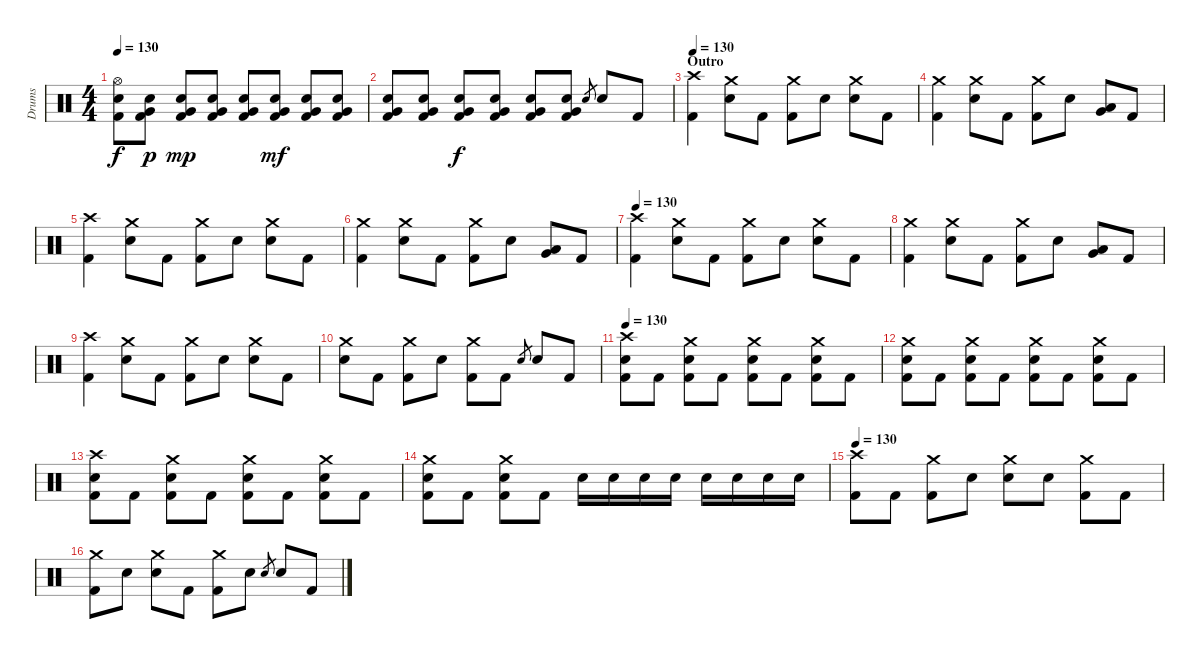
\track ("Drums" "Drums") {instrument percussion}
\staff {score}
\articulation defaults
\ts (4 4)
\tempo 130
\clef neutral
\ks c
("Hi-Hat (open)" "Snare (hit) 2" "Kick (hit) 2").8{dy f} ("Snare (hit) 2" "Very Low Tom (hit)" "Kick (hit) 2").8{dy p} ("Snare (hit) 2" "Very Low Tom (hit)" "Kick (hit) 2").8{dy mp} ("Snare (hit) 2" "Very Low Tom (hit)" "Kick (hit) 2").8 ("Snare (hit) 2" "Very Low Tom (hit)" "Kick (hit) 2").8 ("Snare (hit) 2" "Very Low Tom (hit)" "Kick (hit) 2").8{dy mf} ("Snare (hit) 2" "Very Low Tom (hit)" "Kick (hit) 2").8 ("Snare (hit) 2" "Very Low Tom (hit)" "Kick (hit) 2").8 |
("Snare (hit) 2" "Very Low Tom (hit)" "Kick (hit) 2").8 ("Snare (hit) 2" "Very Low Tom (hit)" "Kick (hit) 2").8 ("Snare (hit) 2" "Very Low Tom (hit)" "Kick (hit) 2").8{dy f} ("Snare (hit) 2" "Very Low Tom (hit)" "Kick (hit) 2").8 ("Snare (hit) 2" "Very Low Tom (hit)" "Kick (hit) 2").8 ("Snare (hit) 2" "Very Low Tom (hit)" "Kick (hit) 2").8 "Snare (hit) 2".8{gr} "Snare (hit) 2".8 "Kick (hit) 2".8 |
\section ("" "Outro")
\tempo 130
("Crash high (hit)" "Kick (hit) 2").4 ("Crash medium (hit)" "Snare (hit) 2").8 "Kick (hit) 2".8 ("Crash medium (hit)" "Kick (hit) 2").8 "Snare (hit) 2".8 ("Crash medium (hit)" "Snare (hit) 2").8 "Kick (hit) 2".8 |
("Crash medium (hit)" "Kick (hit) 2").4 ("Crash medium (hit)" "Snare (hit) 2").8 "Kick (hit) 2".8 ("Crash medium (hit)" "Kick (hit) 2").8 "Snare (hit) 2".8 ("Low Tom (hit)" "Very Low Tom (hit)").8 "Kick (hit) 2".8 |
("Crash high (hit)" "Kick (hit) 2").4 ("Crash medium (hit)" "Snare (hit) 2").8 "Kick (hit) 2".8 ("Crash medium (hit)" "Kick (hit) 2").8 "Snare (hit) 2".8 ("Crash medium (hit)" "Snare (hit) 2").8 "Kick (hit) 2".8 |
("Crash medium (hit)" "Kick (hit) 2").4 ("Crash medium (hit)" "Snare (hit) 2").8 "Kick (hit) 2".8 ("Crash medium (hit)" "Kick (hit) 2").8 "Snare (hit) 2".8 ("Low Tom (hit)" "Very Low Tom (hit)").8 "Kick (hit) 2".8 |
\tempo 130
("Crash high (hit)" "Kick (hit) 2").4 ("Crash medium (hit)" "Snare (hit) 2").8 "Kick (hit) 2".8 ("Crash medium (hit)" "Kick (hit) 2").8 "Snare (hit) 2".8 ("Crash medium (hit)" "Snare (hit) 2").8 "Kick (hit) 2".8 |
("Crash medium (hit)" "Kick (hit) 2").4 ("Crash medium (hit)" "Snare (hit) 2").8 "Kick (hit) 2".8 ("Crash medium (hit)" "Kick (hit) 2").8 "Snare (hit) 2".8 ("Low Tom (hit)" "Very Low Tom (hit)").8 "Kick (hit) 2".8 |
("Crash high (hit)" "Kick (hit) 2").4 ("Crash medium (hit)" "Snare (hit) 2").8 "Kick (hit) 2".8 ("Crash medium (hit)" "Kick (hit) 2").8 "Snare (hit) 2".8 ("Crash medium (hit)" "Snare (hit) 2").8 "Kick (hit) 2".8 |
("Crash medium (hit)" "Snare (hit) 2").8 "Kick (hit) 2".8 ("Crash medium (hit)" "Kick (hit) 2").8 "Snare (hit) 2".8 ("Crash medium (hit)" "Kick (hit) 2").8 "Kick (hit) 2".8 "Snare (hit) 2".8{gr} "Snare (hit) 2".8 "Kick (hit) 2".8 |
\tempo 130
("Crash high (hit)" "Snare (hit) 2" "Kick (hit) 2").8 "Kick (hit) 2".8 ("Crash medium (hit)" "Snare (hit) 2" "Kick (hit) 2").8 "Kick (hit) 2".8 ("Crash medium (hit)" "Snare (hit) 2" "Kick (hit) 2").8 "Kick (hit) 2".8 ("Crash medium (hit)" "Snare (hit) 2" "Kick (hit) 2").8 "Kick (hit) 2".8 |
("Crash medium (hit)" "Snare (hit) 2" "Kick (hit) 2").8 "Kick (hit) 2".8 ("Crash medium (hit)" "Snare (hit) 2" "Kick (hit) 2").8 "Kick (hit) 2".8 ("Crash medium (hit)" "Snare (hit) 2" "Kick (hit) 2").8 "Kick (hit) 2".8 ("Crash medium (hit)" "Snare (hit) 2" "Kick (hit) 2").8 "Kick (hit) 2".8 |
("Crash high (hit)" "Snare (hit) 2" "Kick (hit) 2").8 "Kick (hit) 2".8 ("Crash medium (hit)" "Snare (hit) 2" "Kick (hit) 2").8 "Kick (hit) 2".8 ("Crash medium (hit)" "Snare (hit) 2" "Kick (hit) 2").8 "Kick (hit) 2".8 ("Crash medium (hit)" "Snare (hit) 2" "Kick (hit) 2").8 "Kick (hit) 2".8 |
("Crash medium (hit)" "Snare (hit) 2" "Kick (hit) 2").8 "Kick (hit) 2".8 ("Crash medium (hit)" "Snare (hit) 2" "Kick (hit) 2").8 "Kick (hit) 2".8 "Snare (hit) 2".16 "Snare (hit) 2".16 "Snare (hit) 2".16 "Snare (hit) 2".16 "Snare (hit) 2".16 "Snare (hit) 2".16 "Snare (hit) 2".16 "Snare (hit) 2".16 |
\tempo 130
("Crash high (hit)" "Kick (hit) 2").8 "Kick (hit) 2".8 ("Crash medium (hit)" "Kick (hit) 2").8 "Snare (hit) 2".8 ("Crash medium (hit)" "Snare (hit) 2").8 "Snare (hit) 2".8 ("Crash medium (hit)" "Kick (hit) 2").8 "Kick (hit) 2".8 |
("Crash medium (hit)" "Kick (hit) 2").8 "Snare (hit) 2".8 ("Crash medium (hit)" "Snare (hit) 2").8 "Kick (hit) 2".8 ("Crash medium (hit)" "Kick (hit) 2").8 "Snare (hit) 2".8 "Snare (hit) 2".8{gr} "Snare (hit) 2".8 "Kick (hit) 2".8
